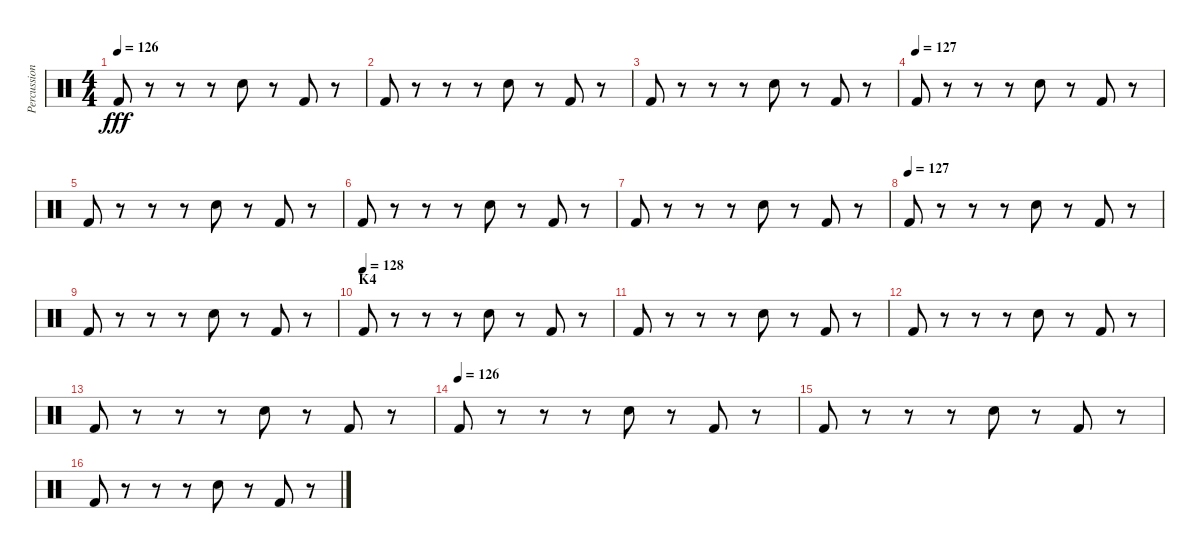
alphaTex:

\track ("Percussion" "Percussion") {instrument percussion}
\staff {score}
\articulation defaults
\ts (4 4)
\tempo 126
\clef neutral
\ks c "Kick (hit) 2".8{dy fff}
r.8 r.8 r.8 "Electric Snare (hit)".8 r.8 "Kick (hit) 2".8 r.8 |
"Kick (hit) 2".8 r.8 r.8 r.8 "Electric Snare (hit)".8 r.8 "Kick (hit) 2".8 r.8 |
"Kick (hit) 2".8 r.8 r.8 r.8 "Electric Snare (hit)".8 r.8 "Kick (hit) 2".8 r.8 |
\tempo (127)
"Kick (hit) 2".8 r.8 r.8 r.8 "Electric Snare (hit)".8 r.8 "Kick (hit) 2".8 r.8 |
"Kick (hit) 2".8 r.8 r.8 r.8 "Electric Snare (hit)".8 r.8 "Kick (hit) 2".8 r.8 |
"Kick (hit) 2".8 r.8 r.8 r.8 "Electric Snare (hit)".8 r.8 "Kick (hit) 2".8 r.8 |
"Kick (hit) 2".8 r.8 r.8 r.8 "Electric Snare (hit)".8 r.8 "Kick (hit) 2".8 r.8 |
\tempo (127)
"Kick (hit) 2".8 r.8 r.8 r.8 "Electric Snare (hit)".8 r.8 "Kick (hit) 2".8 r.8 |
"Kick (hit) 2".8 r.8 r.8 r.8 "Electric Snare (hit)".8 r.8 "Kick (hit) 2".8 r.8 |
\section ("" "K4")
\tempo (128)
"Kick (hit) 2".8 r.8 r.8 r.8 "Electric Snare (hit)".8 r.8 "Kick (hit) 2".8 r.8 |
"Kick (hit) 2".8 r.8 r.8 r.8 "Electric Snare (hit)".8 r.8 "Kick (hit) 2".8 r.8 |
"Kick (hit) 2".8 r.8 r.8 r.8 "Electric Snare (hit)".8 r.8 "Kick (hit) 2".8 r.8 |
"Kick (hit) 2".8 r.8 r.8 r.8 "Electric Snare (hit)".8 r.8 "Kick (hit) 2".8 r.8 |
\tempo (126)
"Kick (hit) 2".8 r.8 r.8 r.8 "Electric Snare (hit)".8 r.8 "Kick (hit) 2".8 r.8 |
"Kick (hit) 2".8 r.8 r.8 r.8 "Electric Snare (hit)".8 r.8 "Kick (hit) 2".8 r.8 |
"Kick (hit) 2".8 r.8 r.8 r.8 "Electric Snare (hit)".8 r.8 "Kick (hit) 2".8 r.8
